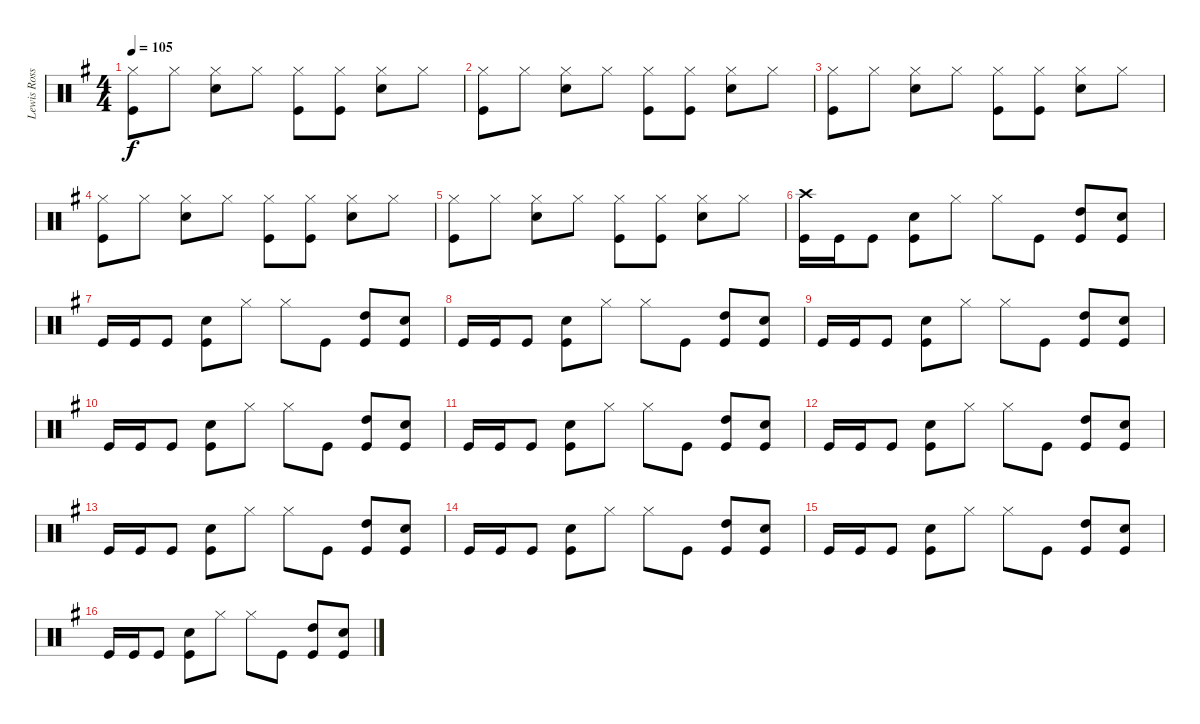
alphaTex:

\track ("Lewis Ross Drums" "Lewis Ross") {instrument percussion}
\staff {score}
\articulation defaults
\ts (4 4)
\tempo 105
\clef neutral
\ks g
("Hi-Hat (closed)" "Kick (hit)").8{dy f} "Hi-Hat (closed)".8 ("Hi-Hat (closed)" "Snare (hit) 2").8 "Hi-Hat (closed)".8 ("Hi-Hat (closed)" "Kick (hit)").8 ("Hi-Hat (closed)" "Kick (hit)").8 ("Hi-Hat (closed)" "Snare (hit) 2").8 "Hi-Hat (closed)".8 |
("Hi-Hat (closed)" "Kick (hit)").8 "Hi-Hat (closed)".8 ("Hi-Hat (closed)" "Snare (hit) 2").8 "Hi-Hat (closed)".8 ("Hi-Hat (closed)" "Kick (hit)").8 ("Hi-Hat (closed)" "Kick (hit)").8 ("Hi-Hat (closed)" "Snare (hit) 2").8 "Hi-Hat (closed)".8 |
("Hi-Hat (closed)" "Kick (hit)").8 "Hi-Hat (closed)".8 ("Hi-Hat (closed)" "Snare (hit) 2").8 "Hi-Hat (closed)".8 ("Hi-Hat (closed)" "Kick (hit)").8 ("Hi-Hat (closed)" "Kick (hit)").8 ("Hi-Hat (closed)" "Snare (hit) 2").8 "Hi-Hat (closed)".8 |
("Hi-Hat (closed)" "Kick (hit)").8 "Hi-Hat (closed)".8 ("Hi-Hat (closed)" "Snare (hit) 2").8 "Hi-Hat (closed)".8 ("Hi-Hat (closed)" "Kick (hit)").8 ("Hi-Hat (closed)" "Kick (hit)").8 ("Hi-Hat (closed)" "Snare (hit) 2").8 "Hi-Hat (closed)".8 |
("Hi-Hat (closed)" "Kick (hit)").8 "Hi-Hat (closed)".8 ("Hi-Hat (closed)" "Snare (hit) 2").8 "Hi-Hat (closed)".8 ("Hi-Hat (closed)" "Kick (hit)").8 ("Hi-Hat (closed)" "Kick (hit)").8 ("Hi-Hat (closed)" "Snare (hit) 2").8 "Hi-Hat (closed)".8 |
("Crash high (hit)" "Kick (hit)").16 "Kick (hit)".16 "Kick (hit)".8 ("Snare (hit) 2" "Kick (hit)").8 "Hi-Hat (closed)".8 "Hi-Hat (closed)".8 "Kick (hit)".8 ("High Tom (hit)" "Kick (hit)").8 ("Snare (hit) 2" "Kick (hit)").8 |
"Kick (hit)".16 "Kick (hit)".16 "Kick (hit)".8 ("Snare (hit) 2" "Kick (hit)").8 "Hi-Hat (closed)".8 "Hi-Hat (closed)".8 "Kick (hit)".8 ("High Tom (hit)" "Kick (hit)").8 ("Snare (hit) 2" "Kick (hit)").8 |
"Kick (hit)".16 "Kick (hit)".16 "Kick (hit)".8 ("Snare (hit) 2" "Kick (hit)").8 "Hi-Hat (closed)".8 "Hi-Hat (closed)".8 "Kick (hit)".8 ("High Tom (hit)" "Kick (hit)").8 ("Snare (hit) 2" "Kick (hit)").8 |
"Kick (hit)".16 "Kick (hit)".16 "Kick (hit)".8 ("Snare (hit) 2" "Kick (hit)").8 "Hi-Hat (closed)".8 "Hi-Hat (closed)".8 "Kick (hit)".8 ("High Tom (hit)" "Kick (hit)").8 ("Snare (hit) 2" "Kick (hit)").8 |
"Kick (hit)".16 "Kick (hit)".16 "Kick (hit)".8 ("Snare (hit) 2" "Kick (hit)").8 "Hi-Hat (closed)".8 "Hi-Hat (closed)".8 "Kick (hit)".8 ("High Tom (hit)" "Kick (hit)").8 ("Snare (hit) 2" "Kick (hit)").8 |
"Kick (hit)".16 "Kick (hit)".16 "Kick (hit)".8 ("Snare (hit) 2" "Kick (hit)").8 "Hi-Hat (closed)".8 "Hi-Hat (closed)".8 "Kick (hit)".8 ("High Tom (hit)" "Kick (hit)").8 ("Snare (hit) 2" "Kick (hit)").8 |
"Kick (hit)".16 "Kick (hit)".16 "Kick (hit)".8 ("Snare (hit) 2" "Kick (hit)").8 "Hi-Hat (closed)".8 "Hi-Hat (closed)".8 "Kick (hit)".8 ("High Tom (hit)" "Kick (hit)").8 ("Snare (hit) 2" "Kick (hit)").8 |
"Kick (hit)".16 "Kick (hit)".16 "Kick (hit)".8 ("Snare (hit) 2" "Kick (hit)").8 "Hi-Hat (closed)".8 "Hi-Hat (closed)".8 "Kick (hit)".8 ("High Tom (hit)" "Kick (hit)").8 ("Snare (hit) 2" "Kick (hit)").8 |
"Kick (hit)".16 "Kick (hit)".16 "Kick (hit)".8 ("Snare (hit) 2" "Kick (hit)").8 "Hi-Hat (closed)".8 "Hi-Hat (closed)".8 "Kick (hit)".8 ("High Tom (hit)" "Kick (hit)").8 ("Snare (hit) 2" "Kick (hit)").8 |
"Kick (hit)".16 "Kick (hit)".16 "Kick (hit)".8 ("Snare (hit) 2" "Kick (hit)").8 "Hi-Hat (closed)".8 "Hi-Hat (closed)".8 "Kick (hit)".8 ("High Tom (hit)" "Kick (hit)").8 ("Snare (hit) 2" "Kick (hit)").8 |
"Kick (hit)".16 "Kick (hit)".16 "Kick (hit)".8 ("Snare (hit) 2" "Kick (hit)").8 "Hi-Hat (closed)".8 "Hi-Hat (closed)".8 "Kick (hit)".8 ("High Tom (hit)" "Kick (hit)").8 ("Snare (hit) 2" "Kick (hit)").8
